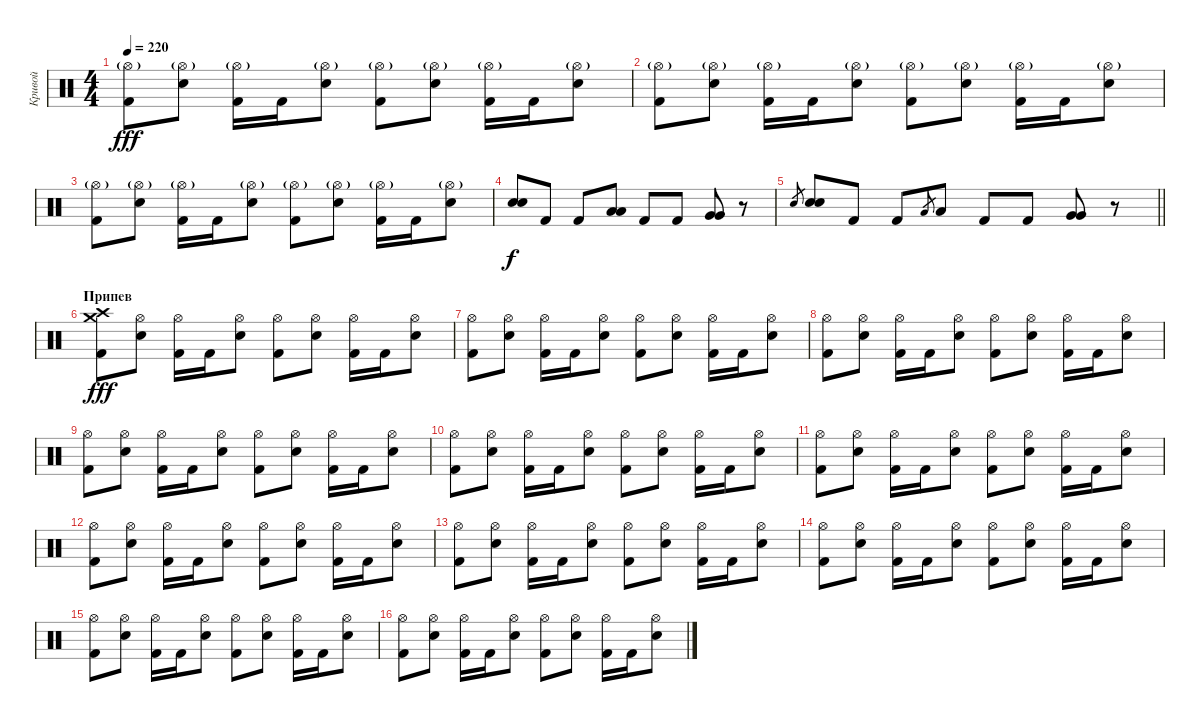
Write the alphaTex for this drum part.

\track ("Кривой" "Кривой") {instrument percussion}
\staff {score}
\articulation defaults
\ts (4 4)
\tempo 220
\clef neutral
\ks c
("Hi-Hat (open)"{g} "Kick (hit) 2").8{dy fff} ("Hi-Hat (open)"{g} "Electric Snare (hit)").8 ("Hi-Hat (open)"{g} "Kick (hit) 2").16 "Kick (hit) 2".16 ("Hi-Hat (open)"{g} "Electric Snare (hit)").8 ("Hi-Hat (open)"{g} "Kick (hit) 2").8 ("Hi-Hat (open)"{g} "Electric Snare (hit)").8 ("Hi-Hat (open)"{g} "Kick (hit) 2").16 "Kick (hit) 2".16 ("Hi-Hat (open)"{g} "Electric Snare (hit)").8 |
("Hi-Hat (open)"{g} "Kick (hit) 2").8 ("Hi-Hat (open)"{g} "Electric Snare (hit)").8 ("Hi-Hat (open)"{g} "Kick (hit) 2").16 "Kick (hit) 2".16 ("Hi-Hat (open)"{g} "Electric Snare (hit)").8 ("Hi-Hat (open)"{g} "Kick (hit) 2").8 ("Hi-Hat (open)"{g} "Electric Snare (hit)").8 ("Hi-Hat (open)"{g} "Kick (hit) 2").16 "Kick (hit) 2".16 ("Hi-Hat (open)"{g} "Electric Snare (hit)").8 |
("Hi-Hat (open)"{g} "Kick (hit) 2").8 ("Hi-Hat (open)"{g} "Electric Snare (hit)").8 ("Hi-Hat (open)"{g} "Kick (hit) 2").16 "Kick (hit) 2".16 ("Hi-Hat (open)"{g} "Electric Snare (hit)").8 ("Hi-Hat (open)"{g} "Kick (hit) 2").8 ("Hi-Hat (open)"{g} "Electric Snare (hit)").8 ("Hi-Hat (open)"{g} "Kick (hit) 2").16 "Kick (hit) 2".16 ("Hi-Hat (open)"{g} "Electric Snare (hit)").8 |
("Electric Snare (hit)" "Electric Snare (hit)").8{dy f} "Kick (hit) 2".8 "Kick (hit) 2".8 ("Low Tom (hit)" "Low Tom (hit)").8 "Kick (hit) 2".8 "Kick (hit) 2".8 ("Very Low Tom (hit)" "Very Low Tom (hit)").8 r.8 |
\barLineRight lightlight "Electric Snare (hit)".8{gr}
("Electric Snare (hit)" "Electric Snare (hit)").8 "Kick (hit) 2".8 "Kick (hit) 2".8 "Low Tom (hit)".8{gr} "Low Tom (hit)".8 "Kick (hit) 2".8 "Kick (hit) 2".8 ("Very Low Tom (hit)" "Very Low Tom (hit)").8 r.8 |
\section ("" "Припев")
("Crash medium (hit)" "Crash high (hit)" "Kick (hit) 2").8{dy fff} ("Hi-Hat (open)" "Electric Snare (hit)").8 ("Hi-Hat (open)" "Kick (hit) 2").16 "Kick (hit) 2".16 ("Hi-Hat (open)" "Electric Snare (hit)").8 ("Hi-Hat (open)" "Kick (hit) 2").8 ("Hi-Hat (open)" "Electric Snare (hit)").8 ("Hi-Hat (open)" "Kick (hit) 2").16 "Kick (hit) 2".16 ("Hi-Hat (open)" "Electric Snare (hit)").8 |
("Hi-Hat (open)" "Kick (hit) 2").8 ("Hi-Hat (open)" "Electric Snare (hit)").8 ("Hi-Hat (open)" "Kick (hit) 2").16 "Kick (hit) 2".16 ("Hi-Hat (open)" "Electric Snare (hit)").8 ("Hi-Hat (open)" "Kick (hit) 2").8 ("Hi-Hat (open)" "Electric Snare (hit)").8 ("Hi-Hat (open)" "Kick (hit) 2").16 "Kick (hit) 2".16 ("Hi-Hat (open)" "Electric Snare (hit)").8 |
("Hi-Hat (open)" "Kick (hit) 2").8 ("Hi-Hat (open)" "Electric Snare (hit)").8 ("Hi-Hat (open)" "Kick (hit) 2").16 "Kick (hit) 2".16 ("Hi-Hat (open)" "Electric Snare (hit)").8 ("Hi-Hat (open)" "Kick (hit) 2").8 ("Hi-Hat (open)" "Electric Snare (hit)").8 ("Hi-Hat (open)" "Kick (hit) 2").16 "Kick (hit) 2".16 ("Hi-Hat (open)" "Electric Snare (hit)").8 |
("Hi-Hat (open)" "Kick (hit) 2").8 ("Hi-Hat (open)" "Electric Snare (hit)").8 ("Hi-Hat (open)" "Kick (hit) 2").16 "Kick (hit) 2".16 ("Hi-Hat (open)" "Electric Snare (hit)").8 ("Hi-Hat (open)" "Kick (hit) 2").8 ("Hi-Hat (open)" "Electric Snare (hit)").8 ("Hi-Hat (open)" "Kick (hit) 2").16 "Kick (hit) 2".16 ("Hi-Hat (open)" "Electric Snare (hit)").8 |
("Hi-Hat (open)" "Kick (hit) 2").8 ("Hi-Hat (open)" "Electric Snare (hit)").8 ("Hi-Hat (open)" "Kick (hit) 2").16 "Kick (hit) 2".16 ("Hi-Hat (open)" "Electric Snare (hit)").8 ("Hi-Hat (open)" "Kick (hit) 2").8 ("Hi-Hat (open)" "Electric Snare (hit)").8 ("Hi-Hat (open)" "Kick (hit) 2").16 "Kick (hit) 2".16 ("Hi-Hat (open)" "Electric Snare (hit)").8 |
("Hi-Hat (open)" "Kick (hit) 2").8 ("Hi-Hat (open)" "Electric Snare (hit)").8 ("Hi-Hat (open)" "Kick (hit) 2").16 "Kick (hit) 2".16 ("Hi-Hat (open)" "Electric Snare (hit)").8 ("Hi-Hat (open)" "Kick (hit) 2").8 ("Hi-Hat (open)" "Electric Snare (hit)").8 ("Hi-Hat (open)" "Kick (hit) 2").16 "Kick (hit) 2".16 ("Hi-Hat (open)" "Electric Snare (hit)").8 |
("Hi-Hat (open)" "Kick (hit) 2").8 ("Hi-Hat (open)" "Electric Snare (hit)").8 ("Hi-Hat (open)" "Kick (hit) 2").16 "Kick (hit) 2".16 ("Hi-Hat (open)" "Electric Snare (hit)").8 ("Hi-Hat (open)" "Kick (hit) 2").8 ("Hi-Hat (open)" "Electric Snare (hit)").8 ("Hi-Hat (open)" "Kick (hit) 2").16 "Kick (hit) 2".16 ("Hi-Hat (open)" "Electric Snare (hit)").8 |
("Hi-Hat (open)" "Kick (hit) 2").8 ("Hi-Hat (open)" "Electric Snare (hit)").8 ("Hi-Hat (open)" "Kick (hit) 2").16 "Kick (hit) 2".16 ("Hi-Hat (open)" "Electric Snare (hit)").8 ("Hi-Hat (open)" "Kick (hit) 2").8 ("Hi-Hat (open)" "Electric Snare (hit)").8 ("Hi-Hat (open)" "Kick (hit) 2").16 "Kick (hit) 2".16 ("Hi-Hat (open)" "Electric Snare (hit)").8 |
("Hi-Hat (open)" "Kick (hit) 2").8 ("Hi-Hat (open)" "Electric Snare (hit)").8 ("Hi-Hat (open)" "Kick (hit) 2").16 "Kick (hit) 2".16 ("Hi-Hat (open)" "Electric Snare (hit)").8 ("Hi-Hat (open)" "Kick (hit) 2").8 ("Hi-Hat (open)" "Electric Snare (hit)").8 ("Hi-Hat (open)" "Kick (hit) 2").16 "Kick (hit) 2".16 ("Hi-Hat (open)" "Electric Snare (hit)").8 |
("Hi-Hat (open)" "Kick (hit) 2").8 ("Hi-Hat (open)" "Electric Snare (hit)").8 ("Hi-Hat (open)" "Kick (hit) 2").16 "Kick (hit) 2".16 ("Hi-Hat (open)" "Electric Snare (hit)").8 ("Hi-Hat (open)" "Kick (hit) 2").8 ("Hi-Hat (open)" "Electric Snare (hit)").8 ("Hi-Hat (open)" "Kick (hit) 2").16 "Kick (hit) 2".16 ("Hi-Hat (open)" "Electric Snare (hit)").8 |
("Hi-Hat (open)" "Kick (hit) 2").8 ("Hi-Hat (open)" "Electric Snare (hit)").8 ("Hi-Hat (open)" "Kick (hit) 2").16 "Kick (hit) 2".16 ("Hi-Hat (open)" "Electric Snare (hit)").8 ("Hi-Hat (open)" "Kick (hit) 2").8 ("Hi-Hat (open)" "Electric Snare (hit)").8 ("Hi-Hat (open)" "Kick (hit) 2").16 "Kick (hit) 2".16 ("Hi-Hat (open)" "Electric Snare (hit)").8
